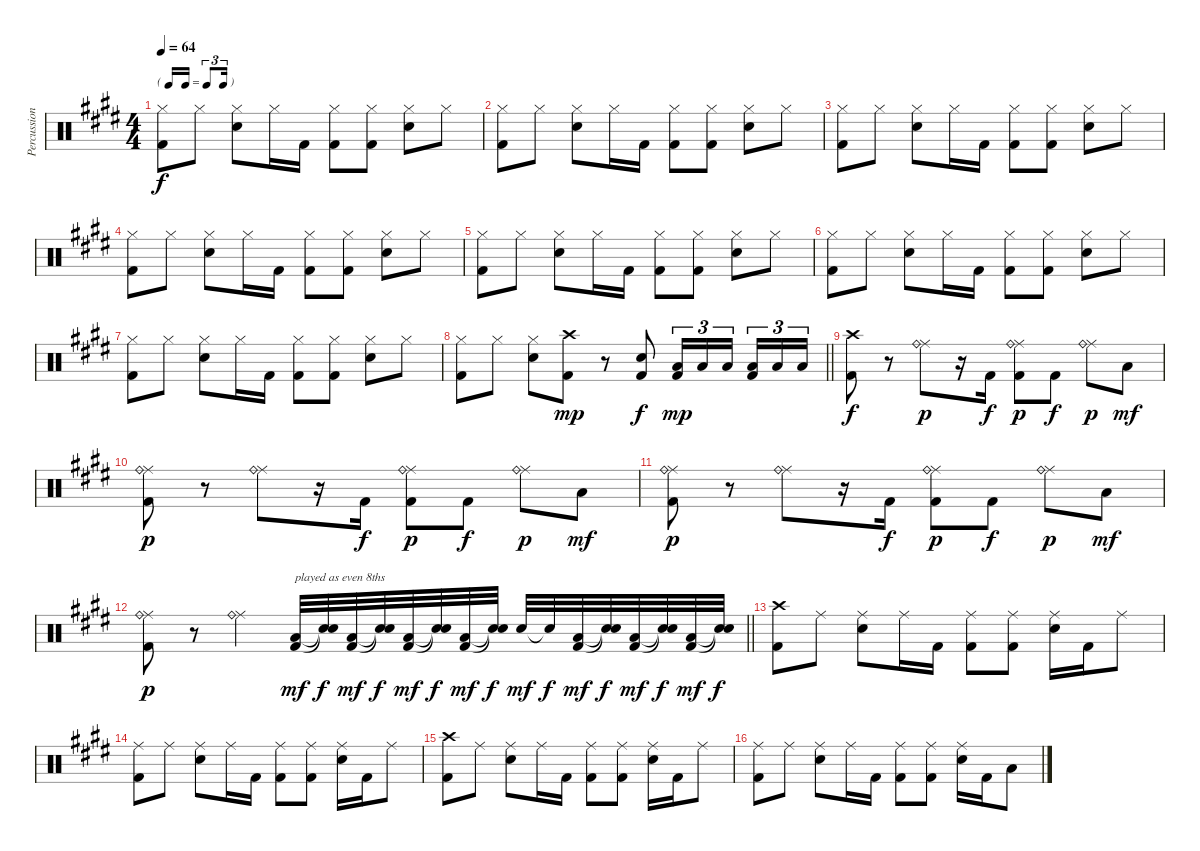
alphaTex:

\track ("Percussion" "Percussion") {instrument percussion}
\staff {score}
\articulation defaults
\ts (4 4)
\tf triplet16th
\tempo 64
\clef neutral
\ks e
("Hi-Hat (closed)" "Kick (hit) 2").8{dy f} "Hi-Hat (closed)".8 ("Hi-Hat (closed)" "Snare (hit) 2").8 "Hi-Hat (closed)".16 "Kick (hit) 2".16 ("Hi-Hat (closed)" "Kick (hit) 2").8 ("Hi-Hat (closed)" "Kick (hit) 2").8 ("Hi-Hat (closed)" "Snare (hit) 2").8 "Hi-Hat (closed)".8 |
("Hi-Hat (closed)" "Kick (hit) 2").8 "Hi-Hat (closed)".8 ("Hi-Hat (closed)" "Snare (hit) 2").8 "Hi-Hat (closed)".16 "Kick (hit) 2".16 ("Hi-Hat (closed)" "Kick (hit) 2").8 ("Hi-Hat (closed)" "Kick (hit) 2").8 ("Hi-Hat (closed)" "Snare (hit) 2").8 "Hi-Hat (closed)".8 |
("Hi-Hat (closed)" "Kick (hit) 2").8 "Hi-Hat (closed)".8 ("Hi-Hat (closed)" "Snare (hit) 2").8 "Hi-Hat (closed)".16 "Kick (hit) 2".16 ("Hi-Hat (closed)" "Kick (hit) 2").8 ("Hi-Hat (closed)" "Kick (hit) 2").8 ("Hi-Hat (closed)" "Snare (hit) 2").8 "Hi-Hat (closed)".8 |
("Hi-Hat (closed)" "Kick (hit) 2").8 "Hi-Hat (closed)".8 ("Hi-Hat (closed)" "Snare (hit) 2").8 "Hi-Hat (closed)".16 "Kick (hit) 2".16 ("Hi-Hat (closed)" "Kick (hit) 2").8 ("Hi-Hat (closed)" "Kick (hit) 2").8 ("Hi-Hat (closed)" "Snare (hit) 2").8 "Hi-Hat (closed)".8 |
("Hi-Hat (closed)" "Kick (hit) 2").8 "Hi-Hat (closed)".8 ("Hi-Hat (closed)" "Snare (hit) 2").8 "Hi-Hat (closed)".16 "Kick (hit) 2".16 ("Hi-Hat (closed)" "Kick (hit) 2").8 ("Hi-Hat (closed)" "Kick (hit) 2").8 ("Hi-Hat (closed)" "Snare (hit) 2").8 "Hi-Hat (closed)".8 |
("Hi-Hat (closed)" "Kick (hit) 2").8 "Hi-Hat (closed)".8 ("Hi-Hat (closed)" "Snare (hit) 2").8 "Hi-Hat (closed)".16 "Kick (hit) 2".16 ("Hi-Hat (closed)" "Kick (hit) 2").8 ("Hi-Hat (closed)" "Kick (hit) 2").8 ("Hi-Hat (closed)" "Snare (hit) 2").8 "Hi-Hat (closed)".8 |
("Hi-Hat (closed)" "Kick (hit) 2").8 "Hi-Hat (closed)".8 ("Hi-Hat (closed)" "Snare (hit) 2").8 "Hi-Hat (closed)".16 "Kick (hit) 2".16 ("Hi-Hat (closed)" "Kick (hit) 2").8 ("Hi-Hat (closed)" "Kick (hit) 2").8 ("Hi-Hat (closed)" "Snare (hit) 2").8 "Hi-Hat (closed)".8 |
\barLineRight lightlight
("Hi-Hat (closed)" "Kick (hit) 2").8 "Hi-Hat (closed)".8 ("Hi-Hat (closed)" "Snare (hit) 2").8 ("Crash high (hit)" "Kick (hit) 2").8{dy mp} r.8 ("Snare (hit) 2" "Kick (hit) 2").8{dy f} ("Low Tom (hit)" "Kick (hit) 2").16{tu (3 2) dy mp} "Low Tom (hit)".16{tu (3 2)} "Low Tom (hit)".16{tu (3 2) beam splitsecondary} ("Low Floor Tom (hit)" "Kick (hit) 2").16{tu (3 2)} "Low Floor Tom (hit)".16{tu (3 2)} "Low Floor Tom (hit)".16{tu (3 2)} |
("Crash high (hit)" "Kick (hit) 2").8{dy f} r.8 ("Ride (middle)" "Ride (bell)").8{dy p} r.16 "Kick (hit) 2".16{dy f} ("Ride (middle)" "Ride (bell)" "Kick (hit) 2").8{dy p} "Kick (hit) 2".8{dy f} ("Ride (middle)" "Ride (bell)").8{dy p} "Low Tom (hit)".8{dy mf} |
("Ride (middle)" "Ride (bell)" "Kick (hit) 2").8{dy p} r.8 ("Ride (middle)" "Ride (bell)").8 r.16 "Kick (hit) 2".16{dy f} ("Ride (middle)" "Ride (bell)" "Kick (hit) 2").8{dy p} "Kick (hit) 2".8{dy f} ("Ride (middle)" "Ride (bell)").8{dy p} "Low Tom (hit)".8{dy mf} |
("Ride (middle)" "Ride (bell)" "Kick (hit) 2").8{dy p} r.8 ("Ride (middle)" "Ride (bell)").8 r.16 "Kick (hit) 2".16{dy f} ("Ride (middle)" "Ride (bell)" "Kick (hit) 2").8{dy p} "Kick (hit) 2".8{dy f} ("Ride (middle)" "Ride (bell)").8{dy p} "Low Tom (hit)".8{dy mf} |
\barLineRight lightlight
("Ride (middle)" "Ride (bell)" "Kick (hit) 2").8{dy p} r.8 ("Ride (middle)" "Ride (bell)").4 ("Low Floor Tom (hit)" "Kick (hit) 2").32{txt "played as even 8ths" dy mf} ("Snare (hit)"{t} "Snare (hit)"{t}).32{dy f} ("Low Floor Tom (hit)" "Kick (hit) 2").32{dy mf} ("Snare (hit)"{t} "Snare (hit)"{t}).32{dy f} ("Low Floor Tom (hit)" "Kick (hit) 2").32{dy mf} ("Snare (hit)"{t} "Snare (hit)"{t}).32{dy f} ("Low Floor Tom (hit)" "Kick (hit) 2").32{dy mf} ("Snare (hit)"{t} "Snare (hit)"{t}).32{dy f} "Snare (hit) 2".32{dy mf} "Snare (hit)"{t}.32{dy f} ("Low Floor Tom (hit)" "Kick (hit) 2").32{dy mf} ("Snare (hit)"{t} "Snare (hit)"{t}).32{dy f} ("Low Floor Tom (hit)" "Kick (hit) 2").32{dy mf} ("Snare (hit)"{t} "Snare (hit)"{t}).32{dy f} ("Low Floor Tom (hit)" "Kick (hit) 2").32{dy mf} ("Snare (hit)"{t} "Snare (hit)"{t}).32{dy f} |
("Crash high (hit)" "Kick (hit) 2").8 "Ride (middle)".8 ("Ride (middle)" "Snare (hit) 2").8 "Ride (middle)".16 "Kick (hit) 2".16 ("Ride (middle)" "Kick (hit) 2").8 ("Ride (middle)" "Kick (hit) 2").8 ("Ride (middle)" "Snare (hit) 2").16 "Kick (hit) 2".16 "Ride (middle)".8 |
("Ride (middle)" "Kick (hit) 2").8 "Ride (middle)".8 ("Ride (middle)" "Snare (hit) 2").8 "Ride (middle)".16 "Kick (hit) 2".16 ("Ride (middle)" "Kick (hit) 2").8 ("Ride (middle)" "Kick (hit) 2").8 ("Ride (middle)" "Snare (hit) 2").16 "Kick (hit) 2".16 "Ride (middle)".8 |
("Crash high (hit)" "Kick (hit) 2").8 "Ride (middle)".8 ("Ride (middle)" "Snare (hit) 2").8 "Ride (middle)".16 "Kick (hit) 2".16 ("Ride (middle)" "Kick (hit) 2").8 ("Ride (middle)" "Kick (hit) 2").8 ("Ride (middle)" "Snare (hit) 2").16 "Kick (hit) 2".16 "Ride (middle)".8 |
("Ride (middle)" "Kick (hit) 2").8 "Ride (middle)".8 ("Ride (middle)" "Snare (hit) 2").8 "Ride (middle)".16 "Kick (hit) 2".16 ("Ride (middle)" "Kick (hit) 2").8 ("Ride (middle)" "Kick (hit) 2").8 ("Ride (middle)" "Snare (hit) 2").16 "Kick (hit) 2".16 "Low Tom (hit)".8
